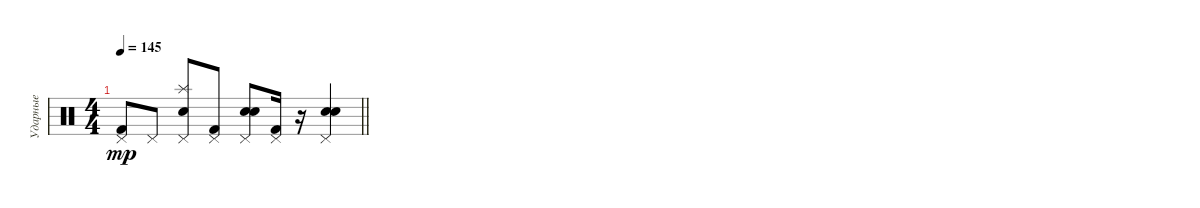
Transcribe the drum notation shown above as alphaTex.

\track ("Ударные" "Ударные") {instrument percussion}
\staff {score}
\articulation defaults
\ts (4 4)
\tempo 145
\clef neutral
\barLineRight lightlight
\ks c
("Pedal Hi-Hat (hit)" "Kick (hit) 2").8{dy mp} "Pedal Hi-Hat (hit)".8 ("Splash (hit)" "Pedal Hi-Hat (hit)" "Electric Snare (hit)").8 ("Pedal Hi-Hat (hit)" "Kick (hit) 2").8 ("Pedal Hi-Hat (hit)" "Electric Snare (hit)" "Snare (hit) 2").8 ("Pedal Hi-Hat (hit)" "Kick (hit) 2").16 r.16 ("Pedal Hi-Hat (hit)" "Electric Snare (hit)" "Snare (hit) 2").4
